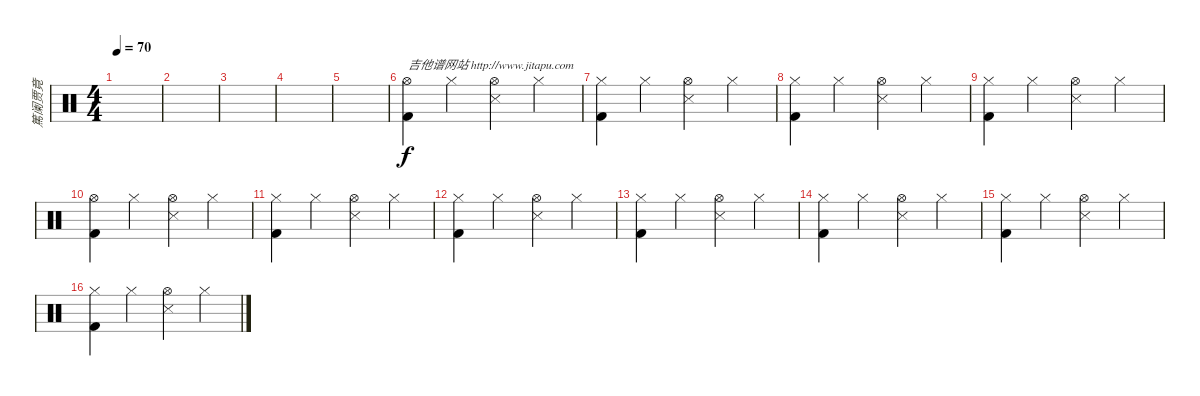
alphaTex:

\track ("篤阑贾竟" "篤阑贾竟") {instrument percussion}
\staff {score}
\articulation defaults
\ts (4 4)
\tempo 70
\clef neutral
\ks c
|
|
|
|
|
("Hi-Hat (open)" "Kick (hit) 2").4{txt "吉他谱网站 http://www.jitapu.com"} "Hi-Hat (closed)".4 ("Hi-Hat (open)" "Snare (side stick) 3").4 "Hi-Hat (closed)".4 |
("Hi-Hat (closed)" "Kick (hit) 2").4 "Hi-Hat (closed)".4 ("Hi-Hat (open)" "Snare (side stick) 3").4 "Hi-Hat (closed)".4 |
("Hi-Hat (closed)" "Kick (hit) 2").4 "Hi-Hat (closed)".4 ("Hi-Hat (open)" "Snare (side stick) 3").4 "Hi-Hat (closed)".4 |
("Hi-Hat (closed)" "Kick (hit) 2").4 "Hi-Hat (closed)".4 ("Hi-Hat (open)" "Snare (side stick) 3").4 "Hi-Hat (closed)".4 |
("Hi-Hat (open)" "Kick (hit) 2").4 "Hi-Hat (closed)".4 ("Hi-Hat (open)" "Snare (side stick) 3").4 "Hi-Hat (closed)".4 |
("Hi-Hat (closed)" "Kick (hit) 2").4 "Hi-Hat (closed)".4 ("Hi-Hat (open)" "Snare (side stick) 3").4 "Hi-Hat (closed)".4 |
("Hi-Hat (closed)" "Kick (hit) 2").4 "Hi-Hat (closed)".4 ("Hi-Hat (open)" "Snare (side stick) 3").4 "Hi-Hat (closed)".4 |
("Hi-Hat (closed)" "Kick (hit) 2").4 "Hi-Hat (closed)".4 ("Hi-Hat (open)" "Snare (side stick) 3").4 "Hi-Hat (closed)".4 |
("Hi-Hat (closed)" "Kick (hit) 2").4 "Hi-Hat (closed)".4 ("Hi-Hat (open)" "Snare (side stick) 3").4 "Hi-Hat (closed)".4 |
("Hi-Hat (closed)" "Kick (hit) 2").4 "Hi-Hat (closed)".4 ("Hi-Hat (open)" "Snare (side stick) 3").4 "Hi-Hat (closed)".4 |
("Hi-Hat (closed)" "Kick (hit) 2").4 "Hi-Hat (closed)".4 ("Hi-Hat (open)" "Snare (side stick) 3").4 "Hi-Hat (closed)".4
